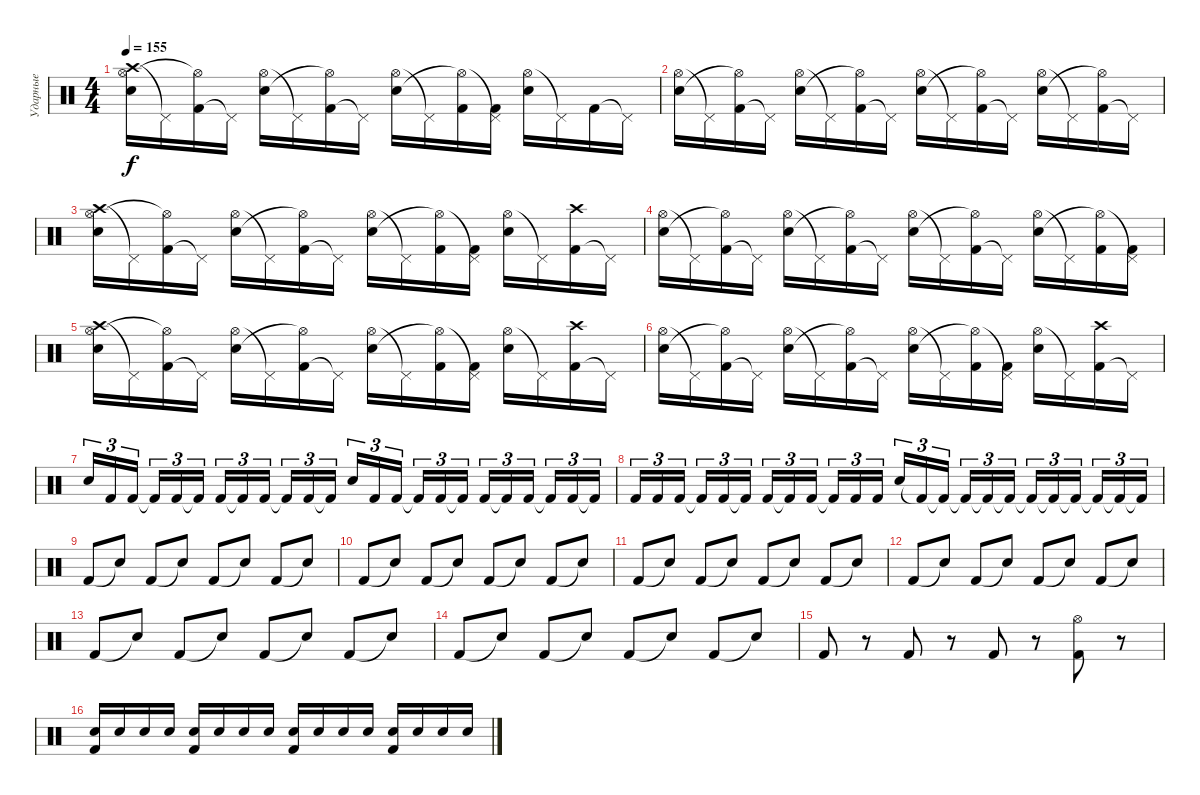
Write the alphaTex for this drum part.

\track ("Ударные" "Ударные") {instrument percussion}
\staff {score}
\articulation defaults
\ts (4 4)
\tempo 155
\clef neutral
\ks c
("Crash high (hit)" "Hi-Hat (open)" "Snare (hit) 2").16{dy f} "Pedal Hi-Hat (hit)"{t}.16 ("Kick (hit) 2" "Hi-Hat (open)"{t}).16 "Pedal Hi-Hat (hit)"{t}.16 ("Hi-Hat (open)" "Snare (hit) 2").16 "Pedal Hi-Hat (hit)"{t}.16 ("Kick (hit) 2" "Hi-Hat (open)"{t}).16 "Pedal Hi-Hat (hit)"{t}.16 ("Hi-Hat (open)" "Snare (hit) 2").16 "Pedal Hi-Hat (hit)"{t}.16 ("Kick (hit) 2" "Hi-Hat (open)"{t}).16 ("Kick (hit) 2" "Pedal Hi-Hat (hit)"{t}).16 ("Hi-Hat (open)" "Snare (hit) 2").16 "Pedal Hi-Hat (hit)"{t}.16 "Kick (hit) 2".16 "Pedal Hi-Hat (hit)"{t}.16 |
("Hi-Hat (open)" "Snare (hit) 2").16 "Pedal Hi-Hat (hit)"{t}.16 ("Kick (hit) 2" "Hi-Hat (open)"{t}).16 "Pedal Hi-Hat (hit)"{t}.16 ("Hi-Hat (open)" "Snare (hit) 2").16 "Pedal Hi-Hat (hit)"{t}.16 ("Kick (hit) 2" "Hi-Hat (open)"{t}).16 "Pedal Hi-Hat (hit)"{t}.16 ("Hi-Hat (open)" "Snare (hit) 2").16 "Pedal Hi-Hat (hit)"{t}.16 ("Kick (hit) 2" "Hi-Hat (open)"{t}).16 "Pedal Hi-Hat (hit)"{t}.16 ("Hi-Hat (open)" "Snare (hit) 2").16 "Pedal Hi-Hat (hit)"{t}.16 ("Kick (hit) 2" "Hi-Hat (open)"{t}).16 "Pedal Hi-Hat (hit)"{t}.16 |
("Crash high (hit)" "Hi-Hat (open)" "Snare (hit) 2").16 "Pedal Hi-Hat (hit)"{t}.16 ("Kick (hit) 2" "Hi-Hat (open)"{t}).16 "Pedal Hi-Hat (hit)"{t}.16 ("Hi-Hat (open)" "Snare (hit) 2").16 "Pedal Hi-Hat (hit)"{t}.16 ("Kick (hit) 2" "Hi-Hat (open)"{t}).16 "Pedal Hi-Hat (hit)"{t}.16 ("Hi-Hat (open)" "Snare (hit) 2").16 "Pedal Hi-Hat (hit)"{t}.16 ("Kick (hit) 2" "Hi-Hat (open)"{t}).16 ("Kick (hit) 2" "Pedal Hi-Hat (hit)"{t}).16 ("Hi-Hat (open)" "Snare (hit) 2").16 "Pedal Hi-Hat (hit)"{t}.16 ("Kick (hit) 2" "Crash high (hit)").16 "Pedal Hi-Hat (hit)"{t}.16 |
("Hi-Hat (open)" "Snare (hit) 2").16 "Pedal Hi-Hat (hit)"{t}.16 ("Kick (hit) 2" "Hi-Hat (open)"{t}).16 "Pedal Hi-Hat (hit)"{t}.16 ("Hi-Hat (open)" "Snare (hit) 2").16 "Pedal Hi-Hat (hit)"{t}.16 ("Kick (hit) 2" "Hi-Hat (open)"{t}).16 "Pedal Hi-Hat (hit)"{t}.16 ("Hi-Hat (open)" "Snare (hit) 2").16 "Pedal Hi-Hat (hit)"{t}.16 ("Kick (hit) 2" "Hi-Hat (open)"{t}).16 "Pedal Hi-Hat (hit)"{t}.16 ("Hi-Hat (open)" "Snare (hit) 2").16 "Pedal Hi-Hat (hit)"{t}.16 ("Kick (hit) 2" "Hi-Hat (open)"{t}).16 ("Kick (hit) 2" "Pedal Hi-Hat (hit)"{t}).16 |
("Crash high (hit)" "Hi-Hat (open)" "Snare (hit) 2").16 "Pedal Hi-Hat (hit)"{t}.16 ("Kick (hit) 2" "Hi-Hat (open)"{t}).16 "Pedal Hi-Hat (hit)"{t}.16 ("Hi-Hat (open)" "Snare (hit) 2").16 "Pedal Hi-Hat (hit)"{t}.16 ("Kick (hit) 2" "Hi-Hat (open)"{t}).16 "Pedal Hi-Hat (hit)"{t}.16 ("Hi-Hat (open)" "Snare (hit) 2").16 "Pedal Hi-Hat (hit)"{t}.16 ("Kick (hit) 2" "Hi-Hat (open)"{t}).16 ("Kick (hit) 2" "Pedal Hi-Hat (hit)"{t}).16 ("Hi-Hat (open)" "Snare (hit) 2").16 "Pedal Hi-Hat (hit)"{t}.16 ("Kick (hit) 2" "Crash high (hit)").16 "Pedal Hi-Hat (hit)"{t}.16 |
("Hi-Hat (open)" "Snare (hit) 2").16 "Pedal Hi-Hat (hit)"{t}.16 ("Kick (hit) 2" "Hi-Hat (open)"{t}).16 "Pedal Hi-Hat (hit)"{t}.16 ("Hi-Hat (open)" "Snare (hit) 2").16 "Pedal Hi-Hat (hit)"{t}.16 ("Kick (hit) 2" "Hi-Hat (open)"{t}).16 "Pedal Hi-Hat (hit)"{t}.16 ("Hi-Hat (open)" "Snare (hit) 2").16 "Pedal Hi-Hat (hit)"{t}.16 ("Kick (hit) 2" "Hi-Hat (open)"{t}).16 ("Kick (hit) 2" "Pedal Hi-Hat (hit)"{t}).16 ("Hi-Hat (open)" "Snare (hit) 2").16 "Pedal Hi-Hat (hit)"{t}.16 ("Kick (hit) 2" "Crash high (hit)").16 "Pedal Hi-Hat (hit)"{t}.16 |
"Snare (hit) 2".16{tu (3 2)} "Kick (hit) 2".16{tu (3 2)} "Kick (hit) 2".16{tu (3 2) beam splitsecondary} "Kick (hit) 2"{t}.16{tu (3 2)} "Kick (hit) 2".16{tu (3 2)} "Kick (hit) 2"{t}.16{tu (3 2)} "Kick (hit) 2".16{tu (3 2)} "Kick (hit) 2"{t}.16{tu (3 2)} "Kick (hit) 2".16{tu (3 2) beam splitsecondary} "Kick (hit) 2"{t}.16{tu (3 2)} "Kick (hit) 2".16{tu (3 2)} "Kick (hit) 2"{t}.16{tu (3 2)} "Snare (hit) 2".16{tu (3 2)} "Kick (hit) 2".16{tu (3 2)} "Kick (hit) 2".16{tu (3 2) beam splitsecondary} "Kick (hit) 2"{t}.16{tu (3 2)} "Kick (hit) 2".16{tu (3 2)} "Kick (hit) 2"{t}.16{tu (3 2)} "Kick (hit) 2".16{tu (3 2)} "Kick (hit) 2"{t}.16{tu (3 2)} "Kick (hit) 2".16{tu (3 2) beam splitsecondary} "Kick (hit) 2"{t}.16{tu (3 2)} "Kick (hit) 2".16{tu (3 2)} "Kick (hit) 2"{t}.16{tu (3 2)} |
"Kick (hit) 2".16{tu (3 2)} "Kick (hit) 2".16{tu (3 2)} "Kick (hit) 2".16{tu (3 2) beam splitsecondary} "Kick (hit) 2"{t}.16{tu (3 2)} "Kick (hit) 2".16{tu (3 2)} "Kick (hit) 2"{t}.16{tu (3 2)} "Kick (hit) 2".16{tu (3 2)} "Kick (hit) 2"{t}.16{tu (3 2)} "Kick (hit) 2".16{tu (3 2) beam splitsecondary} "Kick (hit) 2"{t}.16{tu (3 2)} "Kick (hit) 2".16{tu (3 2)} "Kick (hit) 2".16{tu (3 2)} "Snare (hit) 2".16{tu (3 2)} "Kick (hit) 2"{t}.16{tu (3 2)} "Kick (hit) 2"{t}.16{tu (3 2) beam splitsecondary} "Kick (hit) 2"{t}.16{tu (3 2)} "Kick (hit) 2"{t}.16{tu (3 2)} "Kick (hit) 2"{t}.16{tu (3 2)} "Kick (hit) 2"{t}.16{tu (3 2)} "Kick (hit) 2"{t}.16{tu (3 2)} "Kick (hit) 2"{t}.16{tu (3 2) beam splitsecondary} "Kick (hit) 2"{t}.16{tu (3 2)} "Kick (hit) 2"{t}.16{tu (3 2)} "Kick (hit) 2"{t}.16{tu (3 2)} |
"Kick (hit) 2".8 "Snare (hit)"{t}.8 "Kick (hit) 2".8 "Snare (hit)"{t}.8 "Kick (hit) 2".8 "Snare (hit)"{t}.8 "Kick (hit) 2".8 "Snare (hit)"{t}.8 |
"Kick (hit) 2".8 "Snare (hit)"{t}.8 "Kick (hit) 2".8 "Snare (hit)"{t}.8 "Kick (hit) 2".8 "Snare (hit)"{t}.8 "Kick (hit) 2".8 "Snare (hit)"{t}.8 |
"Kick (hit) 2".8 "Snare (hit)"{t}.8 "Kick (hit) 2".8 "Snare (hit)"{t}.8 "Kick (hit) 2".8 "Snare (hit)"{t}.8 "Kick (hit) 2".8 "Snare (hit)"{t}.8 |
"Kick (hit) 2".8 "Snare (hit)"{t}.8 "Kick (hit) 2".8 "Snare (hit)"{t}.8 "Kick (hit) 2".8 "Snare (hit)"{t}.8 "Kick (hit) 2".8 "Snare (hit)"{t}.8 |
"Kick (hit) 2".8 "Snare (hit)"{t}.8 "Kick (hit) 2".8 "Snare (hit)"{t}.8 "Kick (hit) 2".8 "Snare (hit)"{t}.8 "Kick (hit) 2".8 "Snare (hit)"{t}.8 |
"Kick (hit) 2".8 "Snare (hit)"{t}.8 "Kick (hit) 2".8 "Snare (hit)"{t}.8 "Kick (hit) 2".8 "Snare (hit)"{t}.8 "Kick (hit) 2".8 "Snare (hit)"{t}.8 |
"Kick (hit) 2".8 r.8 "Kick (hit) 2".8 r.8 "Kick (hit) 2".8 r.8 ("Kick (hit) 2" "Hi-Hat (open)").8 r.8 |
("Kick (hit) 2" "Snare (hit) 2").16 "Snare (hit) 2".16 "Snare (hit) 2".16 "Snare (hit) 2".16 ("Kick (hit) 2" "Snare (hit) 2").16 "Snare (hit) 2".16 "Snare (hit) 2".16 "Snare (hit) 2".16 ("Kick (hit) 2" "Snare (hit) 2").16 "Snare (hit) 2".16 "Snare (hit) 2".16 "Snare (hit) 2".16 ("Kick (hit) 2" "Snare (hit) 2").16 "Snare (hit) 2".16 "Snare (hit) 2".16 "Snare (hit) 2".16
